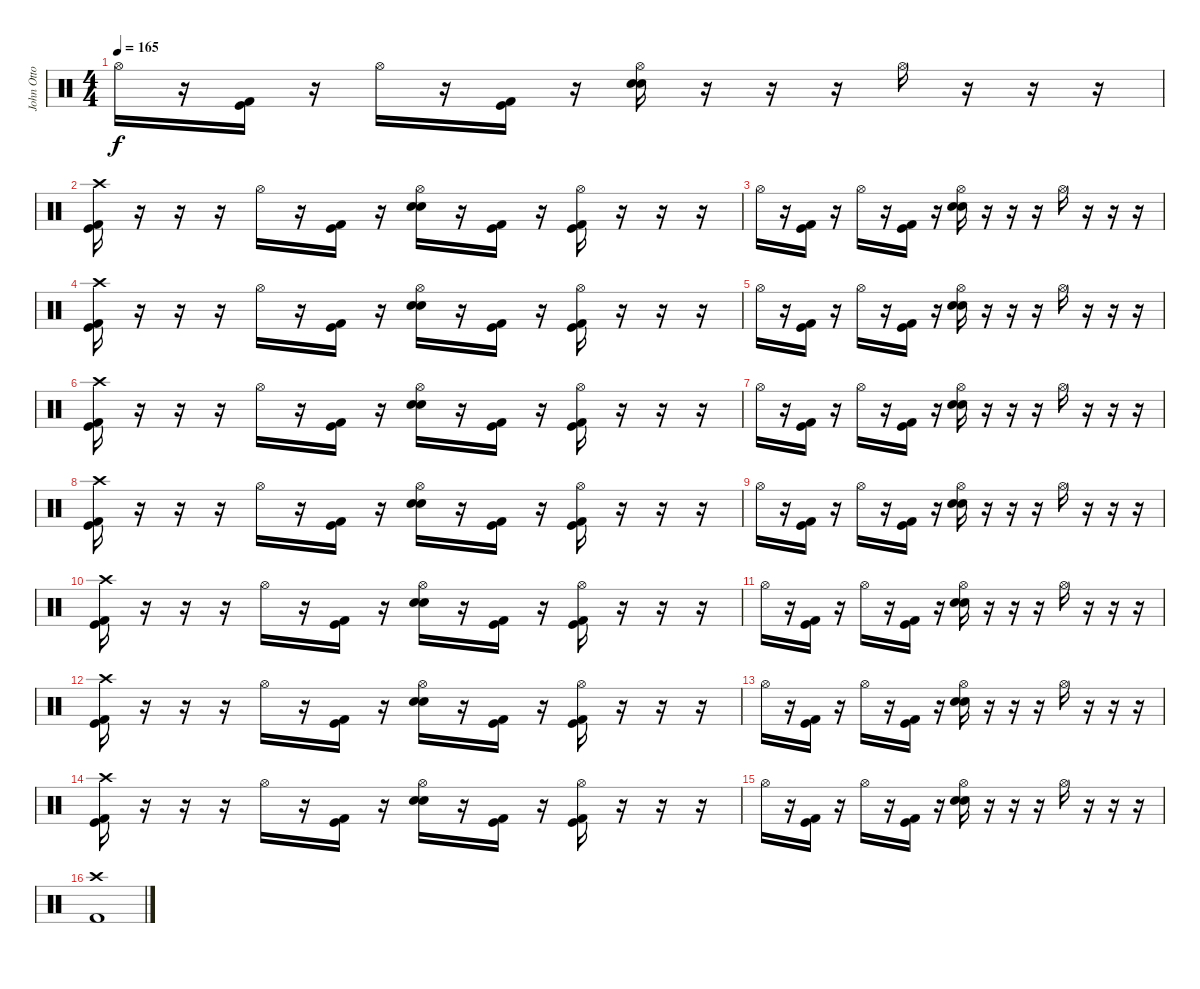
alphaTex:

\track ("John Otto" "John Otto") {instrument percussion}
\staff {score}
\articulation defaults
\ts (4 4)
\tempo 165
\clef neutral
\ks c "Hi-Hat (open)".16{dy f}
r.16 ("Kick (hit)" "Kick (hit) 2").16 r.16 "Hi-Hat (open)".16 r.16 ("Kick (hit)" "Kick (hit) 2").16 r.16 ("Hi-Hat (open)" "Electric Snare (hit)" "Snare (hit) 2").16 r.16 r.16 r.16 "Hi-Hat (open)".16 r.16 r.16 r.16 |
("Crash high (hit)" "Kick (hit)" "Kick (hit) 2").16 r.16 r.16 r.16 "Hi-Hat (open)".16 r.16 ("Kick (hit)" "Kick (hit) 2").16 r.16 ("Hi-Hat (open)" "Electric Snare (hit)" "Snare (hit) 2").16 r.16 ("Kick (hit)" "Kick (hit) 2").16 r.16 ("Hi-Hat (open)" "Kick (hit)" "Kick (hit) 2").16 r.16 r.16 r.16 |
"Hi-Hat (open)".16 r.16 ("Kick (hit)" "Kick (hit) 2").16 r.16 "Hi-Hat (open)".16 r.16 ("Kick (hit)" "Kick (hit) 2").16 r.16 ("Hi-Hat (open)" "Electric Snare (hit)" "Snare (hit) 2").16 r.16 r.16 r.16 "Hi-Hat (open)".16 r.16 r.16 r.16 |
("Crash high (hit)" "Kick (hit)" "Kick (hit) 2").16 r.16 r.16 r.16 "Hi-Hat (open)".16 r.16 ("Kick (hit)" "Kick (hit) 2").16 r.16 ("Hi-Hat (open)" "Electric Snare (hit)" "Snare (hit) 2").16 r.16 ("Kick (hit)" "Kick (hit) 2").16 r.16 ("Hi-Hat (open)" "Kick (hit)" "Kick (hit) 2").16 r.16 r.16 r.16 |
"Hi-Hat (open)".16 r.16 ("Kick (hit)" "Kick (hit) 2").16 r.16 "Hi-Hat (open)".16 r.16 ("Kick (hit)" "Kick (hit) 2").16 r.16 ("Hi-Hat (open)" "Electric Snare (hit)" "Snare (hit) 2").16 r.16 r.16 r.16 "Hi-Hat (open)".16 r.16 r.16 r.16 |
("Crash high (hit)" "Kick (hit)" "Kick (hit) 2").16 r.16 r.16 r.16 "Hi-Hat (open)".16 r.16 ("Kick (hit)" "Kick (hit) 2").16 r.16 ("Hi-Hat (open)" "Electric Snare (hit)" "Snare (hit) 2").16 r.16 ("Kick (hit)" "Kick (hit) 2").16 r.16 ("Hi-Hat (open)" "Kick (hit)" "Kick (hit) 2").16 r.16 r.16 r.16 |
"Hi-Hat (open)".16 r.16 ("Kick (hit)" "Kick (hit) 2").16 r.16 "Hi-Hat (open)".16 r.16 ("Kick (hit)" "Kick (hit) 2").16 r.16 ("Hi-Hat (open)" "Electric Snare (hit)" "Snare (hit) 2").16 r.16 r.16 r.16 "Hi-Hat (open)".16 r.16 r.16 r.16 |
("Crash high (hit)" "Kick (hit)" "Kick (hit) 2").16 r.16 r.16 r.16 "Hi-Hat (open)".16 r.16 ("Kick (hit)" "Kick (hit) 2").16 r.16 ("Hi-Hat (open)" "Electric Snare (hit)" "Snare (hit) 2").16 r.16 ("Kick (hit)" "Kick (hit) 2").16 r.16 ("Hi-Hat (open)" "Kick (hit)" "Kick (hit) 2").16 r.16 r.16 r.16 |
"Hi-Hat (open)".16 r.16 ("Kick (hit)" "Kick (hit) 2").16 r.16 "Hi-Hat (open)".16 r.16 ("Kick (hit)" "Kick (hit) 2").16 r.16 ("Hi-Hat (open)" "Electric Snare (hit)" "Snare (hit) 2").16 r.16 r.16 r.16 "Hi-Hat (open)".16 r.16 r.16 r.16 |
("Crash high (hit)" "Kick (hit)" "Kick (hit) 2").16 r.16 r.16 r.16 "Hi-Hat (open)".16 r.16 ("Kick (hit)" "Kick (hit) 2").16 r.16 ("Hi-Hat (open)" "Electric Snare (hit)" "Snare (hit) 2").16 r.16 ("Kick (hit)" "Kick (hit) 2").16 r.16 ("Hi-Hat (open)" "Kick (hit)" "Kick (hit) 2").16 r.16 r.16 r.16 |
"Hi-Hat (open)".16 r.16 ("Kick (hit)" "Kick (hit) 2").16 r.16 "Hi-Hat (open)".16 r.16 ("Kick (hit)" "Kick (hit) 2").16 r.16 ("Hi-Hat (open)" "Electric Snare (hit)" "Snare (hit) 2").16 r.16 r.16 r.16 "Hi-Hat (open)".16 r.16 r.16 r.16 |
("Crash high (hit)" "Kick (hit)" "Kick (hit) 2").16 r.16 r.16 r.16 "Hi-Hat (open)".16 r.16 ("Kick (hit)" "Kick (hit) 2").16 r.16 ("Hi-Hat (open)" "Electric Snare (hit)" "Snare (hit) 2").16 r.16 ("Kick (hit)" "Kick (hit) 2").16 r.16 ("Hi-Hat (open)" "Kick (hit)" "Kick (hit) 2").16 r.16 r.16 r.16 |
"Hi-Hat (open)".16 r.16 ("Kick (hit)" "Kick (hit) 2").16 r.16 "Hi-Hat (open)".16 r.16 ("Kick (hit)" "Kick (hit) 2").16 r.16 ("Hi-Hat (open)" "Electric Snare (hit)" "Snare (hit) 2").16 r.16 r.16 r.16 "Hi-Hat (open)".16 r.16 r.16 r.16 |
("Crash high (hit)" "Kick (hit)" "Kick (hit) 2").16 r.16 r.16 r.16 "Hi-Hat (open)".16 r.16 ("Kick (hit)" "Kick (hit) 2").16 r.16 ("Hi-Hat (open)" "Electric Snare (hit)" "Snare (hit) 2").16 r.16 ("Kick (hit)" "Kick (hit) 2").16 r.16 ("Hi-Hat (open)" "Kick (hit)" "Kick (hit) 2").16 r.16 r.16 r.16 |
"Hi-Hat (open)".16 r.16 ("Kick (hit)" "Kick (hit) 2").16 r.16 "Hi-Hat (open)".16 r.16 ("Kick (hit)" "Kick (hit) 2").16 r.16 ("Hi-Hat (open)" "Electric Snare (hit)" "Snare (hit) 2").16 r.16 r.16 r.16 "Hi-Hat (open)".16 r.16 r.16 r.16 |
("Crash high (hit)" "Kick (hit) 2").1
